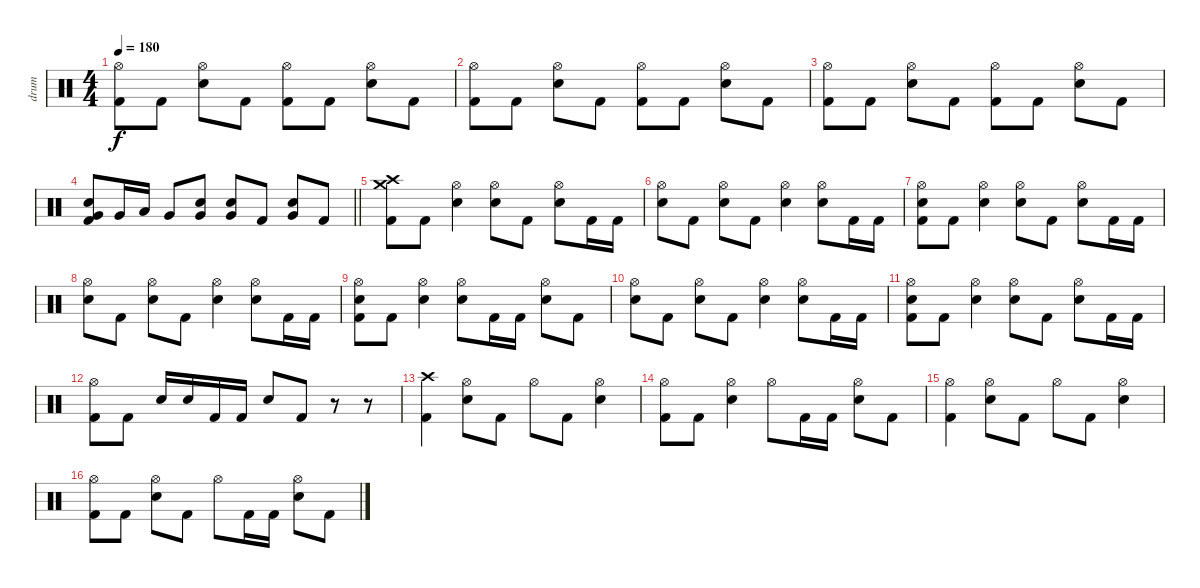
\track ("drum" "drum") {instrument percussion}
\staff {score}
\articulation defaults
\ts (4 4)
\tempo 180
\clef neutral
\ks c
("Hi-Hat (open)" "Kick (hit) 2").8{dy f} "Kick (hit) 2".8 ("Hi-Hat (open)" "Snare (hit) 2").8 "Kick (hit) 2".8 ("Hi-Hat (open)" "Kick (hit) 2").8 "Kick (hit) 2".8 ("Hi-Hat (open)" "Snare (hit) 2").8 "Kick (hit) 2".8 |
("Hi-Hat (open)" "Kick (hit) 2").8 "Kick (hit) 2".8 ("Hi-Hat (open)" "Snare (hit) 2").8 "Kick (hit) 2".8 ("Hi-Hat (open)" "Kick (hit) 2").8 "Kick (hit) 2".8 ("Hi-Hat (open)" "Snare (hit) 2").8 "Kick (hit) 2".8 |
("Hi-Hat (open)" "Kick (hit) 2").8 "Kick (hit) 2".8 ("Hi-Hat (open)" "Snare (hit) 2").8 "Kick (hit) 2".8 ("Hi-Hat (open)" "Kick (hit) 2").8 "Kick (hit) 2".8 ("Hi-Hat (open)" "Snare (hit) 2").8 "Kick (hit) 2".8 |
\barLineRight lightlight
("Very Low Tom (hit)" "Snare (hit) 2" "Kick (hit) 2").8 "Very Low Tom (hit)".16 "Low Tom (hit)".16 "Very Low Tom (hit)".8 ("Snare (hit) 2" "Very Low Tom (hit)").8 ("Snare (hit) 2" "Very Low Tom (hit)").8 "Kick (hit) 2".8 ("Snare (hit) 2" "Very Low Tom (hit)").8 "Kick (hit) 2".8 |
("Crash high (hit)" "Crash medium (hit)" "Kick (hit) 2").8 "Kick (hit) 2".8 ("Hi-Hat (open)" "Snare (hit) 2").4 ("Hi-Hat (open)" "Snare (hit) 2").8 "Kick (hit) 2".8 ("Hi-Hat (open)" "Snare (hit) 2").8 "Kick (hit) 2".16 "Kick (hit) 2".16 |
("Hi-Hat (open)" "Snare (hit) 2").8 "Kick (hit) 2".8 ("Hi-Hat (open)" "Snare (hit) 2").8 "Kick (hit) 2".8 ("Hi-Hat (open)" "Snare (hit) 2").4 ("Hi-Hat (open)" "Snare (hit) 2").8 "Kick (hit) 2".16 "Kick (hit) 2".16 |
("Hi-Hat (open)" "Snare (hit) 2" "Kick (hit) 2").8 "Kick (hit) 2".8 ("Hi-Hat (open)" "Snare (hit) 2").4 ("Hi-Hat (open)" "Snare (hit) 2").8 "Kick (hit) 2".8 ("Hi-Hat (open)" "Snare (hit) 2").8 "Kick (hit) 2".16 "Kick (hit) 2".16 |
("Hi-Hat (open)" "Snare (hit) 2").8 "Kick (hit) 2".8 ("Hi-Hat (open)" "Snare (hit) 2").8 "Kick (hit) 2".8 ("Hi-Hat (open)" "Snare (hit) 2").4 ("Hi-Hat (open)" "Snare (hit) 2").8 "Kick (hit) 2".16 "Kick (hit) 2".16 |
("Hi-Hat (open)" "Snare (hit) 2" "Kick (hit) 2").8 "Kick (hit) 2".8 ("Hi-Hat (open)" "Snare (hit) 2").4 ("Hi-Hat (open)" "Snare (hit) 2").8 "Kick (hit) 2".16 "Kick (hit) 2".16 ("Hi-Hat (open)" "Snare (hit) 2").8 "Kick (hit) 2".8 |
("Hi-Hat (open)" "Snare (hit) 2").8 "Kick (hit) 2".8 ("Hi-Hat (open)" "Snare (hit) 2").8 "Kick (hit) 2".8 ("Hi-Hat (open)" "Snare (hit) 2").4 ("Hi-Hat (open)" "Snare (hit) 2").8 "Kick (hit) 2".16 "Kick (hit) 2".16 |
("Hi-Hat (open)" "Snare (hit) 2" "Kick (hit) 2").8 "Kick (hit) 2".8 ("Hi-Hat (open)" "Snare (hit) 2").4 ("Hi-Hat (open)" "Snare (hit) 2").8 "Kick (hit) 2".8 ("Hi-Hat (open)" "Snare (hit) 2").8 "Kick (hit) 2".16 "Kick (hit) 2".16 |
("Hi-Hat (open)" "Kick (hit) 2").8 "Kick (hit) 2".8 "Snare (hit) 2".16 "Snare (hit) 2".16 "Kick (hit) 2".16 "Kick (hit) 2".16 "Snare (hit) 2".8 "Kick (hit) 2".8 r.8 r.8 |
("Crash high (hit)" "Kick (hit) 2").4 ("Hi-Hat (open)" "Snare (hit) 2").8 "Kick (hit) 2".8 "Hi-Hat (open)".8 "Kick (hit) 2".8 ("Hi-Hat (open)" "Snare (hit) 2").4 |
("Hi-Hat (open)" "Kick (hit) 2").8 "Kick (hit) 2".8 ("Hi-Hat (open)" "Snare (hit) 2").4 "Hi-Hat (open)".8 "Kick (hit) 2".16 "Kick (hit) 2".16 ("Hi-Hat (open)" "Snare (hit) 2").8 "Kick (hit) 2".8 |
("Hi-Hat (open)" "Kick (hit) 2").4 ("Hi-Hat (open)" "Snare (hit) 2").8 "Kick (hit) 2".8 "Hi-Hat (open)".8 "Kick (hit) 2".8 ("Hi-Hat (open)" "Snare (hit) 2").4 |
("Hi-Hat (open)" "Kick (hit) 2").8 "Kick (hit) 2".8 ("Hi-Hat (open)" "Snare (hit) 2").8 "Kick (hit) 2".8 "Hi-Hat (open)".8 "Kick (hit) 2".16 "Kick (hit) 2".16 ("Hi-Hat (open)" "Snare (hit) 2").8 "Kick (hit) 2".8
